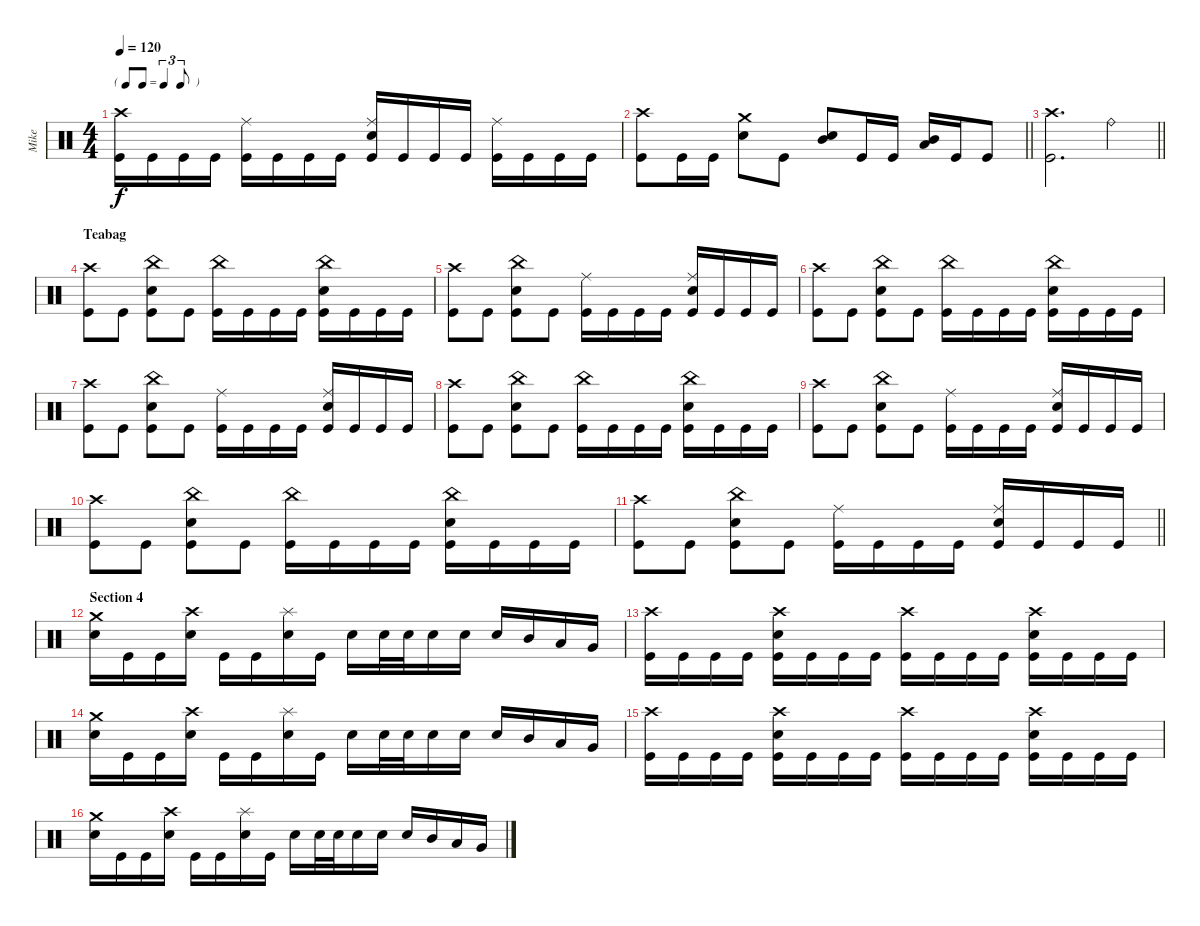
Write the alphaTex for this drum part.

\track ("Mike" "Mike") {instrument percussion}
\staff {score}
\articulation defaults
\ts (4 4)
\tf triplet8th
\tempo 120
\clef neutral
\ks c
("Crash high (hit)" "Kick (hit)").16{dy f} "Kick (hit)".16 "Kick (hit)".16 "Kick (hit)".16 ("Ride (middle)" "Kick (hit)").16 "Kick (hit)".16 "Kick (hit)".16 "Kick (hit)".16 ("Ride (middle)" "Snare (hit) 2" "Kick (hit)").16 "Kick (hit)".16 "Kick (hit)".16 "Kick (hit)".16 ("Ride (middle)" "Kick (hit)").16 "Kick (hit)".16 "Kick (hit)".16 "Kick (hit)".16 |
\barLineRight lightlight
("Crash high (hit)" "Kick (hit)").8 "Kick (hit)".16 "Kick (hit)".16 ("Crash medium (hit)" "Snare (hit) 2").8 "Kick (hit)".8 ("Mid Tom (hit)" "Snare (hit) 2").8 "Kick (hit)".16 "Kick (hit)".16 ("Mid Tom (hit)" "Low Tom (hit)").16 "Kick (hit)".16 "Kick (hit)".8 |
\barLineRight lightlight
("Crash high (hit)" "Kick (hit)").2{d} "Ride (bell)".4 |
\section ("" "Teabag")
("Crash high (hit)" "Kick (hit)").8 "Kick (hit)".8 ("China (hit)" "Snare (hit) 2" "Kick (hit)").8 "Kick (hit)".8 ("China (hit)" "Kick (hit)").16 "Kick (hit)".16 "Kick (hit)".16 "Kick (hit)".16 ("China (hit)" "Snare (hit) 2" "Kick (hit)").16 "Kick (hit)".16 "Kick (hit)".16 "Kick (hit)".16 |
("Crash high (hit)" "Kick (hit)").8 "Kick (hit)".8 ("China (hit)" "Snare (hit) 2" "Kick (hit)").8 "Kick (hit)".8 ("Ride (middle)" "Kick (hit)").16 "Kick (hit)".16 "Kick (hit)".16 "Kick (hit)".16 ("Ride (middle)" "Snare (hit) 2" "Kick (hit)").16 "Kick (hit)".16 "Kick (hit)".16 "Kick (hit)".16 |
("Crash high (hit)" "Kick (hit)").8 "Kick (hit)".8 ("China (hit)" "Snare (hit) 2" "Kick (hit)").8 "Kick (hit)".8 ("China (hit)" "Kick (hit)").16 "Kick (hit)".16 "Kick (hit)".16 "Kick (hit)".16 ("China (hit)" "Snare (hit) 2" "Kick (hit)").16 "Kick (hit)".16 "Kick (hit)".16 "Kick (hit)".16 |
("Crash high (hit)" "Kick (hit)").8 "Kick (hit)".8 ("China (hit)" "Snare (hit) 2" "Kick (hit)").8 "Kick (hit)".8 ("Ride (middle)" "Kick (hit)").16 "Kick (hit)".16 "Kick (hit)".16 "Kick (hit)".16 ("Ride (middle)" "Snare (hit) 2" "Kick (hit)").16 "Kick (hit)".16 "Kick (hit)".16 "Kick (hit)".16 |
("Crash high (hit)" "Kick (hit)").8 "Kick (hit)".8 ("China (hit)" "Snare (hit) 2" "Kick (hit)").8 "Kick (hit)".8 ("China (hit)" "Kick (hit)").16 "Kick (hit)".16 "Kick (hit)".16 "Kick (hit)".16 ("China (hit)" "Snare (hit) 2" "Kick (hit)").16 "Kick (hit)".16 "Kick (hit)".16 "Kick (hit)".16 |
("Crash high (hit)" "Kick (hit)").8 "Kick (hit)".8 ("China (hit)" "Snare (hit) 2" "Kick (hit)").8 "Kick (hit)".8 ("Ride (middle)" "Kick (hit)").16 "Kick (hit)".16 "Kick (hit)".16 "Kick (hit)".16 ("Ride (middle)" "Snare (hit) 2" "Kick (hit)").16 "Kick (hit)".16 "Kick (hit)".16 "Kick (hit)".16 |
("Crash high (hit)" "Kick (hit)").8 "Kick (hit)".8 ("China (hit)" "Snare (hit) 2" "Kick (hit)").8 "Kick (hit)".8 ("China (hit)" "Kick (hit)").16 "Kick (hit)".16 "Kick (hit)".16 "Kick (hit)".16 ("China (hit)" "Snare (hit) 2" "Kick (hit)").16 "Kick (hit)".16 "Kick (hit)".16 "Kick (hit)".16 |
\barLineRight lightlight
("Crash high (hit)" "Kick (hit)").8 "Kick (hit)".8 ("China (hit)" "Snare (hit) 2" "Kick (hit)").8 "Kick (hit)".8 ("Ride (middle)" "Kick (hit)").16 "Kick (hit)".16 "Kick (hit)".16 "Kick (hit)".16 ("Ride (middle)" "Snare (hit) 2" "Kick (hit)").16 "Kick (hit)".16 "Kick (hit)".16 "Kick (hit)".16 |
\section ("" "Section 4")
("Crash medium (hit)" "Snare (hit) 2").16 "Kick (hit)".16 "Kick (hit)".16 ("Crash high (hit)" "Snare (hit) 2").16 "Kick (hit)".16 "Kick (hit)".16 ("Splash (hit)" "Snare (hit) 2").16 "Kick (hit)".16 "Snare (hit) 2".16 "Snare (hit) 2".32 "Snare (hit) 2".32 "Snare (hit) 2".16 "Snare (hit) 2".16 "Snare (hit) 2".16 "Mid Tom (hit)".16 "Low Tom (hit)".16 "Very Low Tom (hit)".16 |
("Crash high (hit)" "Kick (hit)").16 "Kick (hit)".16 "Kick (hit)".16 "Kick (hit)".16 ("Crash high (hit)" "Snare (hit) 2" "Kick (hit)").16 "Kick (hit)".16 "Kick (hit)".16 "Kick (hit)".16 ("Crash high (hit)" "Kick (hit)").16 "Kick (hit)".16 "Kick (hit)".16 "Kick (hit)".16 ("Crash high (hit)" "Snare (hit) 2" "Kick (hit)").16 "Kick (hit)".16 "Kick (hit)".16 "Kick (hit)".16 |
("Crash medium (hit)" "Snare (hit) 2").16 "Kick (hit)".16 "Kick (hit)".16 ("Crash high (hit)" "Snare (hit) 2").16 "Kick (hit)".16 "Kick (hit)".16 ("Splash (hit)" "Snare (hit) 2").16 "Kick (hit)".16 "Snare (hit) 2".16 "Snare (hit) 2".32 "Snare (hit) 2".32 "Snare (hit) 2".16 "Snare (hit) 2".16 "Snare (hit) 2".16 "Mid Tom (hit)".16 "Low Tom (hit)".16 "Very Low Tom (hit)".16 |
("Crash high (hit)" "Kick (hit)").16 "Kick (hit)".16 "Kick (hit)".16 "Kick (hit)".16 ("Crash high (hit)" "Snare (hit) 2" "Kick (hit)").16 "Kick (hit)".16 "Kick (hit)".16 "Kick (hit)".16 ("Crash high (hit)" "Kick (hit)").16 "Kick (hit)".16 "Kick (hit)".16 "Kick (hit)".16 ("Crash high (hit)" "Snare (hit) 2" "Kick (hit)").16 "Kick (hit)".16 "Kick (hit)".16 "Kick (hit)".16 |
("Crash medium (hit)" "Snare (hit) 2").16 "Kick (hit)".16 "Kick (hit)".16 ("Crash high (hit)" "Snare (hit) 2").16 "Kick (hit)".16 "Kick (hit)".16 ("Splash (hit)" "Snare (hit) 2").16 "Kick (hit)".16 "Snare (hit) 2".16 "Snare (hit) 2".32 "Snare (hit) 2".32 "Snare (hit) 2".16 "Snare (hit) 2".16 "Snare (hit) 2".16 "Mid Tom (hit)".16 "Low Tom (hit)".16 "Very Low Tom (hit)".16
